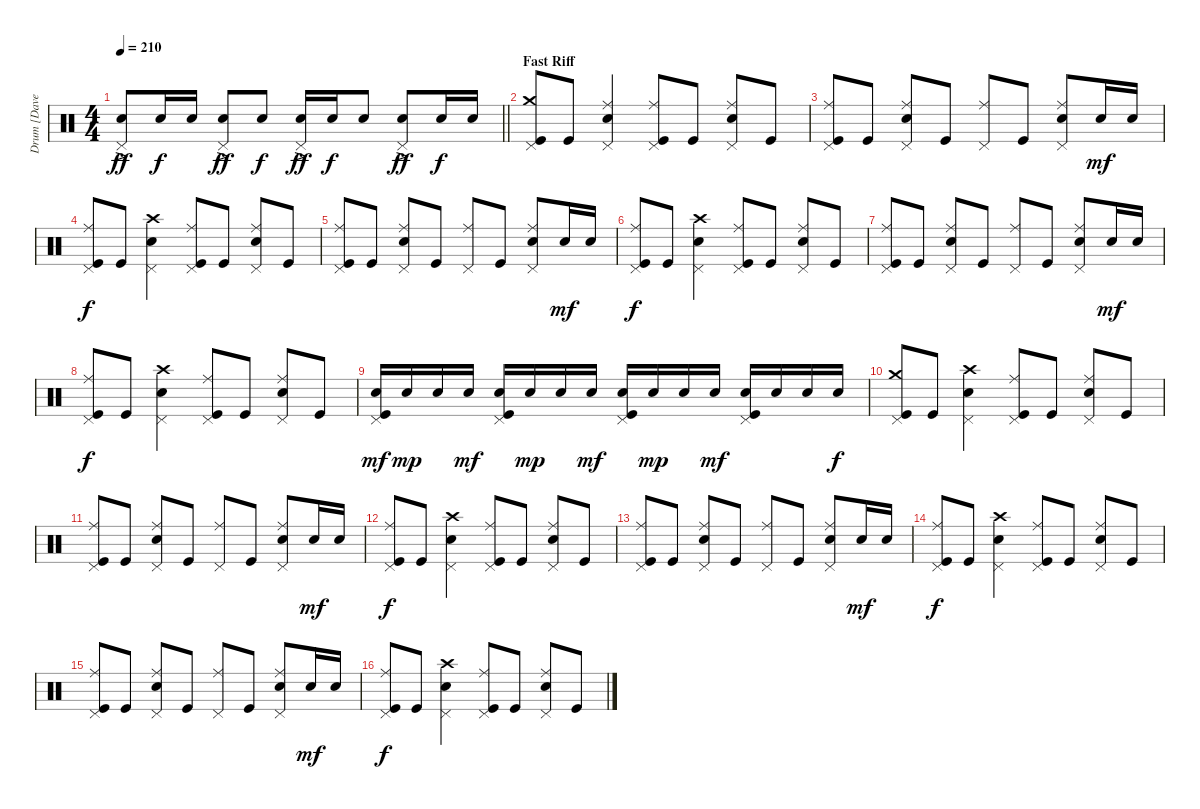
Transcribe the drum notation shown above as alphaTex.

\track ("Drum [Dave Grohl]" "Drum [Dave") {instrument percussion bank 84}
\staff {score}
\articulation defaults
\ts (4 4)
\tempo 210
\clef neutral
\barLineRight lightlight
\ks c
("Pedal Hi-Hat (hit)"{ac} "Electric Snare (hit)").8{dy ff} "Electric Snare (hit)".16{dy f} "Electric Snare (hit)".16 ("Pedal Hi-Hat (hit)"{ac} "Electric Snare (hit)").8{dy ff} "Electric Snare (hit)".8{dy f} ("Pedal Hi-Hat (hit)"{ac} "Electric Snare (hit)").16{dy ff} "Electric Snare (hit)".16{dy f} "Electric Snare (hit)".8 ("Pedal Hi-Hat (hit)"{ac} "Electric Snare (hit)").8{dy ff} "Electric Snare (hit)".16{dy f} "Electric Snare (hit)".16 |
\section ("" "Fast Riff")
("Pedal Hi-Hat (hit)" "Crash medium (hit)" "Kick (hit)").8 "Kick (hit)".8 ("Pedal Hi-Hat (hit)" "Ride (middle)" "Electric Snare (hit)").4 ("Pedal Hi-Hat (hit)" "Ride (middle)" "Kick (hit)").8 "Kick (hit)".8 ("Pedal Hi-Hat (hit)" "Ride (middle)" "Electric Snare (hit)").8 "Kick (hit)".8 |
("Pedal Hi-Hat (hit)" "Ride (middle)" "Kick (hit)").8 "Kick (hit)".8 ("Pedal Hi-Hat (hit)" "Ride (middle)" "Electric Snare (hit)").8 "Kick (hit)".8 ("Pedal Hi-Hat (hit)" "Ride (middle)").8 "Kick (hit)".8 ("Pedal Hi-Hat (hit)" "Ride (middle)" "Electric Snare (hit)").8 "Electric Snare (hit)".16{dy mf} "Electric Snare (hit)".16 |
("Pedal Hi-Hat (hit)" "Ride (middle)" "Kick (hit)").8{dy f} "Kick (hit)".8 ("Pedal Hi-Hat (hit)" "Crash high (hit)" "Electric Snare (hit)").4 ("Pedal Hi-Hat (hit)" "Ride (middle)" "Kick (hit)").8 "Kick (hit)".8 ("Pedal Hi-Hat (hit)" "Ride (middle)" "Electric Snare (hit)").8 "Kick (hit)".8 |
("Pedal Hi-Hat (hit)" "Ride (middle)" "Kick (hit)").8 "Kick (hit)".8 ("Pedal Hi-Hat (hit)" "Ride (middle)" "Electric Snare (hit)").8 "Kick (hit)".8 ("Pedal Hi-Hat (hit)" "Ride (middle)").8 "Kick (hit)".8 ("Pedal Hi-Hat (hit)" "Ride (middle)" "Electric Snare (hit)").8 "Electric Snare (hit)".16{dy mf} "Electric Snare (hit)".16 |
("Pedal Hi-Hat (hit)" "Ride (middle)" "Kick (hit)").8{dy f} "Kick (hit)".8 ("Pedal Hi-Hat (hit)" "Crash high (hit)" "Electric Snare (hit)").4 ("Pedal Hi-Hat (hit)" "Ride (middle)" "Kick (hit)").8 "Kick (hit)".8 ("Pedal Hi-Hat (hit)" "Ride (middle)" "Electric Snare (hit)").8 "Kick (hit)".8 |
("Pedal Hi-Hat (hit)" "Ride (middle)" "Kick (hit)").8 "Kick (hit)".8 ("Pedal Hi-Hat (hit)" "Ride (middle)" "Electric Snare (hit)").8 "Kick (hit)".8 ("Pedal Hi-Hat (hit)" "Ride (middle)").8 "Kick (hit)".8 ("Pedal Hi-Hat (hit)" "Ride (middle)" "Electric Snare (hit)").8 "Electric Snare (hit)".16{dy mf} "Electric Snare (hit)".16 |
("Pedal Hi-Hat (hit)" "Ride (middle)" "Kick (hit)").8{dy f} "Kick (hit)".8 ("Pedal Hi-Hat (hit)" "Crash high (hit)" "Electric Snare (hit)").4 ("Pedal Hi-Hat (hit)" "Ride (middle)" "Kick (hit)").8 "Kick (hit)".8 ("Pedal Hi-Hat (hit)" "Ride (middle)" "Electric Snare (hit)").8 "Kick (hit)".8 |
("Pedal Hi-Hat (hit)" "Electric Snare (hit)" "Kick (hit)").16{dy mf} "Electric Snare (hit)".16{dy mp} "Electric Snare (hit)".16 "Electric Snare (hit)".16{dy mf} ("Pedal Hi-Hat (hit)" "Electric Snare (hit)" "Kick (hit)").16 "Electric Snare (hit)".16{dy mp} "Electric Snare (hit)".16 "Electric Snare (hit)".16{dy mf} ("Pedal Hi-Hat (hit)" "Electric Snare (hit)" "Kick (hit)").16 "Electric Snare (hit)".16{dy mp} "Electric Snare (hit)".16 "Electric Snare (hit)".16{dy mf} ("Pedal Hi-Hat (hit)" "Electric Snare (hit)" "Kick (hit)").16 "Electric Snare (hit)".16 "Electric Snare (hit)".16 "Electric Snare (hit)".16{dy f} |
("Pedal Hi-Hat (hit)" "Crash medium (hit)" "Kick (hit)").8 "Kick (hit)".8 ("Pedal Hi-Hat (hit)" "Crash high (hit)" "Electric Snare (hit)").4 ("Pedal Hi-Hat (hit)" "Ride (middle)" "Kick (hit)").8 "Kick (hit)".8 ("Pedal Hi-Hat (hit)" "Ride (middle)" "Electric Snare (hit)").8 "Kick (hit)".8 |
("Pedal Hi-Hat (hit)" "Ride (middle)" "Kick (hit)").8 "Kick (hit)".8 ("Pedal Hi-Hat (hit)" "Ride (middle)" "Electric Snare (hit)").8 "Kick (hit)".8 ("Pedal Hi-Hat (hit)" "Ride (middle)").8 "Kick (hit)".8 ("Pedal Hi-Hat (hit)" "Ride (middle)" "Electric Snare (hit)").8 "Electric Snare (hit)".16{dy mf} "Electric Snare (hit)".16 |
("Pedal Hi-Hat (hit)" "Ride (middle)" "Kick (hit)").8{dy f} "Kick (hit)".8 ("Pedal Hi-Hat (hit)" "Crash high (hit)" "Electric Snare (hit)").4 ("Pedal Hi-Hat (hit)" "Ride (middle)" "Kick (hit)").8 "Kick (hit)".8 ("Pedal Hi-Hat (hit)" "Ride (middle)" "Electric Snare (hit)").8 "Kick (hit)".8 |
("Pedal Hi-Hat (hit)" "Ride (middle)" "Kick (hit)").8 "Kick (hit)".8 ("Pedal Hi-Hat (hit)" "Ride (middle)" "Electric Snare (hit)").8 "Kick (hit)".8 ("Pedal Hi-Hat (hit)" "Ride (middle)").8 "Kick (hit)".8 ("Pedal Hi-Hat (hit)" "Ride (middle)" "Electric Snare (hit)").8 "Electric Snare (hit)".16{dy mf} "Electric Snare (hit)".16 |
("Pedal Hi-Hat (hit)" "Ride (middle)" "Kick (hit)").8{dy f} "Kick (hit)".8 ("Pedal Hi-Hat (hit)" "Crash high (hit)" "Electric Snare (hit)").4 ("Pedal Hi-Hat (hit)" "Ride (middle)" "Kick (hit)").8 "Kick (hit)".8 ("Pedal Hi-Hat (hit)" "Ride (middle)" "Electric Snare (hit)").8 "Kick (hit)".8 |
("Pedal Hi-Hat (hit)" "Ride (middle)" "Kick (hit)").8 "Kick (hit)".8 ("Pedal Hi-Hat (hit)" "Ride (middle)" "Electric Snare (hit)").8 "Kick (hit)".8 ("Pedal Hi-Hat (hit)" "Ride (middle)").8 "Kick (hit)".8 ("Pedal Hi-Hat (hit)" "Ride (middle)" "Electric Snare (hit)").8 "Electric Snare (hit)".16{dy mf} "Electric Snare (hit)".16 |
("Pedal Hi-Hat (hit)" "Ride (middle)" "Kick (hit)").8{dy f} "Kick (hit)".8 ("Pedal Hi-Hat (hit)" "Crash high (hit)" "Electric Snare (hit)").4 ("Pedal Hi-Hat (hit)" "Ride (middle)" "Kick (hit)").8 "Kick (hit)".8 ("Pedal Hi-Hat (hit)" "Ride (middle)" "Electric Snare (hit)").8 "Kick (hit)".8
